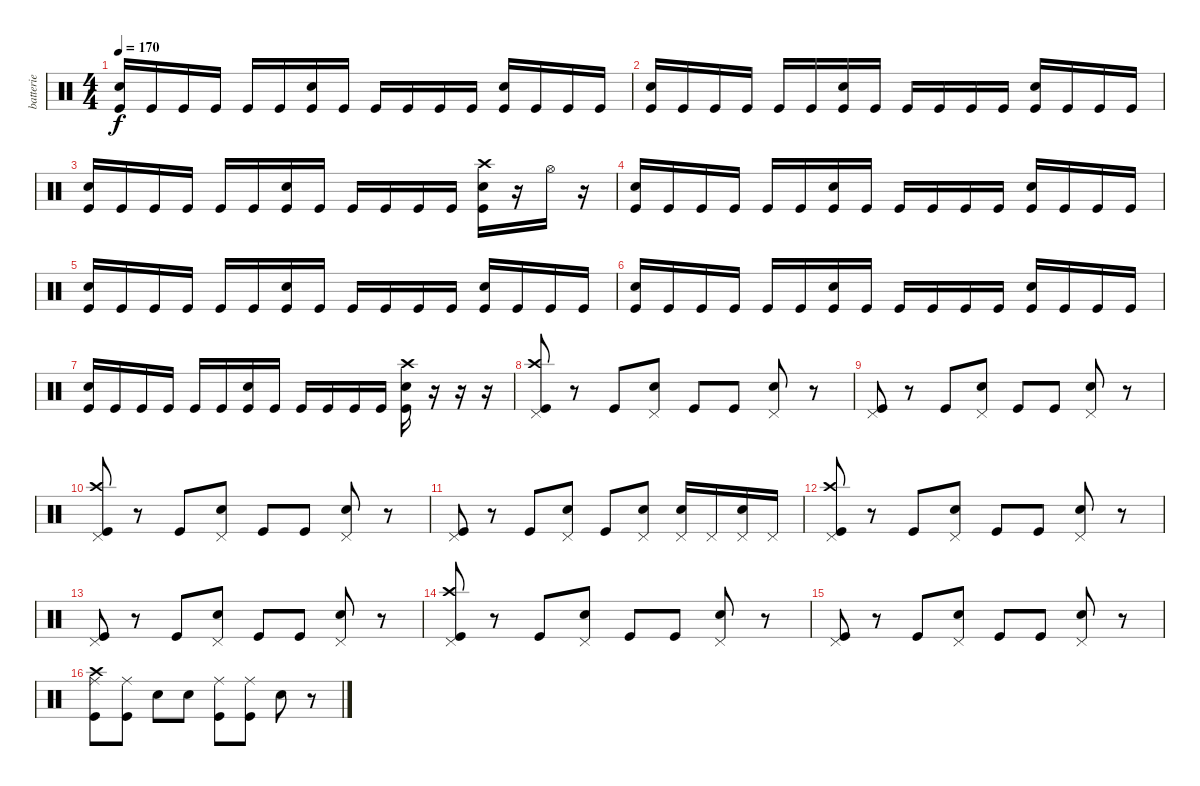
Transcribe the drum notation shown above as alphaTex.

\track ("batterie" "batterie") {instrument percussion}
\staff {score}
\articulation defaults
\ts (4 4)
\tempo 170
\clef neutral
\ks c
("Electric Snare (hit)" "Kick (hit)").16{dy f} "Kick (hit)".16 "Kick (hit)".16 "Kick (hit)".16 "Kick (hit)".16 "Kick (hit)".16 ("Electric Snare (hit)" "Kick (hit)").16 "Kick (hit)".16 "Kick (hit)".16 "Kick (hit)".16 "Kick (hit)".16 "Kick (hit)".16 ("Electric Snare (hit)" "Kick (hit)").16 "Kick (hit)".16 "Kick (hit)".16 "Kick (hit)".16 |
("Electric Snare (hit)" "Kick (hit)").16 "Kick (hit)".16 "Kick (hit)".16 "Kick (hit)".16 "Kick (hit)".16 "Kick (hit)".16 ("Electric Snare (hit)" "Kick (hit)").16 "Kick (hit)".16 "Kick (hit)".16 "Kick (hit)".16 "Kick (hit)".16 "Kick (hit)".16 ("Electric Snare (hit)" "Kick (hit)").16 "Kick (hit)".16 "Kick (hit)".16 "Kick (hit)".16 |
("Electric Snare (hit)" "Kick (hit)").16 "Kick (hit)".16 "Kick (hit)".16 "Kick (hit)".16 "Kick (hit)".16 "Kick (hit)".16 ("Electric Snare (hit)" "Kick (hit)").16 "Kick (hit)".16 "Kick (hit)".16 "Kick (hit)".16 "Kick (hit)".16 "Kick (hit)".16 ("Crash high (hit)" "Electric Snare (hit)" "Kick (hit)").16 r.16 "Hi-Hat (open)".16 r.16 |
("Electric Snare (hit)" "Kick (hit)").16 "Kick (hit)".16 "Kick (hit)".16 "Kick (hit)".16 "Kick (hit)".16 "Kick (hit)".16 ("Electric Snare (hit)" "Kick (hit)").16 "Kick (hit)".16 "Kick (hit)".16 "Kick (hit)".16 "Kick (hit)".16 "Kick (hit)".16 ("Electric Snare (hit)" "Kick (hit)").16 "Kick (hit)".16 "Kick (hit)".16 "Kick (hit)".16 |
("Electric Snare (hit)" "Kick (hit)").16 "Kick (hit)".16 "Kick (hit)".16 "Kick (hit)".16 "Kick (hit)".16 "Kick (hit)".16 ("Electric Snare (hit)" "Kick (hit)").16 "Kick (hit)".16 "Kick (hit)".16 "Kick (hit)".16 "Kick (hit)".16 "Kick (hit)".16 ("Electric Snare (hit)" "Kick (hit)").16 "Kick (hit)".16 "Kick (hit)".16 "Kick (hit)".16 |
("Electric Snare (hit)" "Kick (hit)").16 "Kick (hit)".16 "Kick (hit)".16 "Kick (hit)".16 "Kick (hit)".16 "Kick (hit)".16 ("Electric Snare (hit)" "Kick (hit)").16 "Kick (hit)".16 "Kick (hit)".16 "Kick (hit)".16 "Kick (hit)".16 "Kick (hit)".16 ("Electric Snare (hit)" "Kick (hit)").16 "Kick (hit)".16 "Kick (hit)".16 "Kick (hit)".16 |
("Electric Snare (hit)" "Kick (hit)").16 "Kick (hit)".16 "Kick (hit)".16 "Kick (hit)".16 "Kick (hit)".16 "Kick (hit)".16 ("Electric Snare (hit)" "Kick (hit)").16 "Kick (hit)".16 "Kick (hit)".16 "Kick (hit)".16 "Kick (hit)".16 "Kick (hit)".16 ("Crash high (hit)" "Electric Snare (hit)" "Kick (hit)").16 r.16 r.16 r.16 |
("Crash high (hit)" "Pedal Hi-Hat (hit)" "Kick (hit)").8 r.8 "Kick (hit)".8 ("Pedal Hi-Hat (hit)" "Electric Snare (hit)").8 "Kick (hit)".8 "Kick (hit)".8 ("Pedal Hi-Hat (hit)" "Electric Snare (hit)").8 r.8 |
("Pedal Hi-Hat (hit)" "Kick (hit)").8 r.8 "Kick (hit)".8 ("Pedal Hi-Hat (hit)" "Electric Snare (hit)").8 "Kick (hit)".8 "Kick (hit)".8 ("Pedal Hi-Hat (hit)" "Electric Snare (hit)").8 r.8 |
("Crash high (hit)" "Pedal Hi-Hat (hit)" "Kick (hit)").8 r.8 "Kick (hit)".8 ("Pedal Hi-Hat (hit)" "Electric Snare (hit)").8 "Kick (hit)".8 "Kick (hit)".8 ("Pedal Hi-Hat (hit)" "Electric Snare (hit)").8 r.8 |
("Pedal Hi-Hat (hit)" "Kick (hit)").8 r.8 "Kick (hit)".8 ("Pedal Hi-Hat (hit)" "Electric Snare (hit)").8 "Kick (hit)".8 ("Pedal Hi-Hat (hit)" "Electric Snare (hit)").8 ("Pedal Hi-Hat (hit)" "Electric Snare (hit)").16 "Pedal Hi-Hat (hit)".16 ("Pedal Hi-Hat (hit)" "Electric Snare (hit)").16 "Pedal Hi-Hat (hit)".16 |
("Crash high (hit)" "Pedal Hi-Hat (hit)" "Kick (hit)").8 r.8 "Kick (hit)".8 ("Pedal Hi-Hat (hit)" "Electric Snare (hit)").8 "Kick (hit)".8 "Kick (hit)".8 ("Pedal Hi-Hat (hit)" "Electric Snare (hit)").8 r.8 |
("Pedal Hi-Hat (hit)" "Kick (hit)").8 r.8 "Kick (hit)".8 ("Pedal Hi-Hat (hit)" "Electric Snare (hit)").8 "Kick (hit)".8 "Kick (hit)".8 ("Pedal Hi-Hat (hit)" "Electric Snare (hit)").8 r.8 |
("Crash high (hit)" "Pedal Hi-Hat (hit)" "Kick (hit)").8 r.8 "Kick (hit)".8 ("Pedal Hi-Hat (hit)" "Electric Snare (hit)").8 "Kick (hit)".8 "Kick (hit)".8 ("Pedal Hi-Hat (hit)" "Electric Snare (hit)").8 r.8 |
("Pedal Hi-Hat (hit)" "Kick (hit)").8 r.8 "Kick (hit)".8 ("Pedal Hi-Hat (hit)" "Electric Snare (hit)").8 "Kick (hit)".8 "Kick (hit)".8 ("Pedal Hi-Hat (hit)" "Electric Snare (hit)").8 r.8 |
("Crash high (hit)" "Ride (middle)" "Kick (hit)").8 ("Ride (middle)" "Kick (hit)").8 "Electric Snare (hit)".8 "Electric Snare (hit)".8 ("Ride (middle)" "Kick (hit)").8 ("Ride (middle)" "Kick (hit)").8 "Electric Snare (hit)".8 r.8
